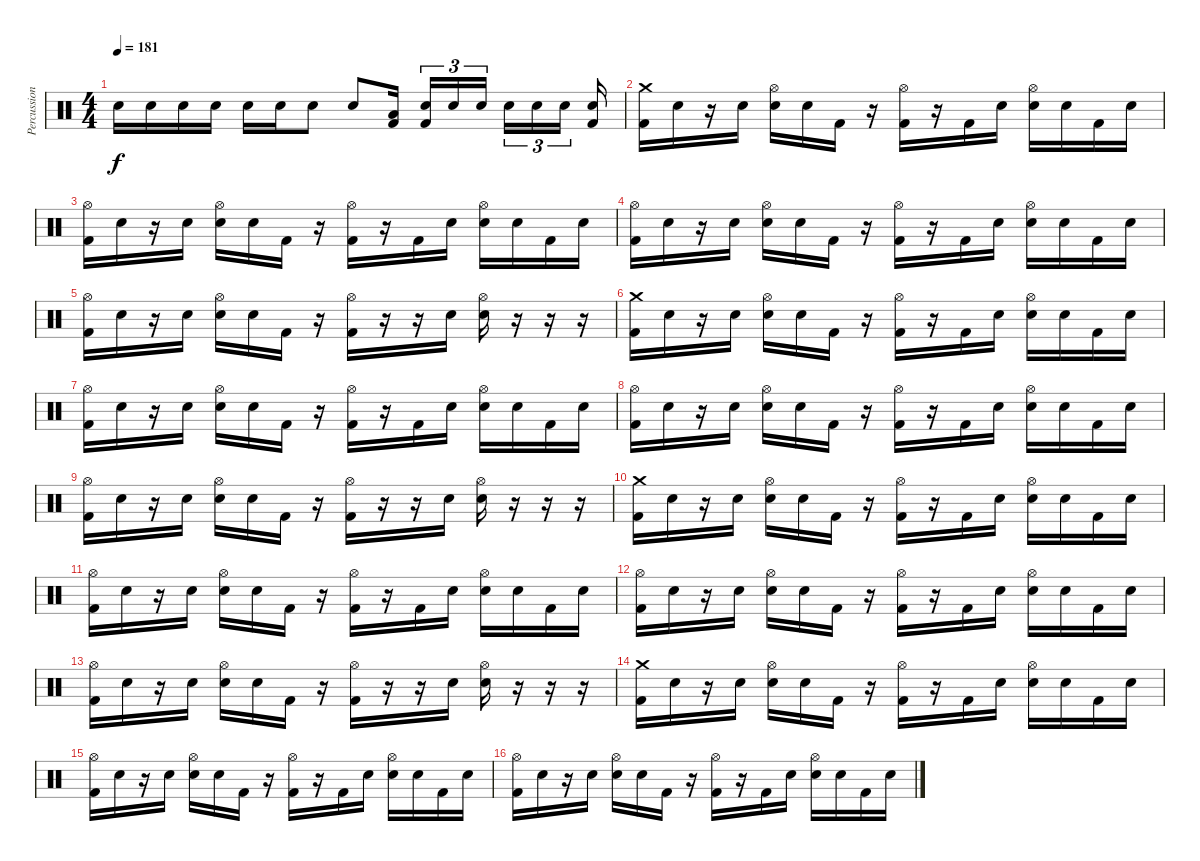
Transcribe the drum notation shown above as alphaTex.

\track ("Percussion" "Percussion") {instrument percussion}
\staff {score}
\articulation defaults
\ts (4 4)
\tempo 181
\clef neutral
\ks c "Snare (hit)"{x}.16{dy f} "Snare (hit)"{x}.16 "Snare (hit)"{x}.16 "Snare (hit)"{x}.16 "Snare (hit)"{x}.16 "Snare (hit)"{x}.16 "Snare (hit)"{x}.8 "Snare (hit)"{x}.8
("Kick (hit) 2" "Low Tom (hit)").16 ("Electric Snare (hit)" "Kick (hit) 2").16{tu (3 2)} "Electric Snare (hit)".16{tu (3 2)} "Electric Snare (hit)".16{tu (3 2)} "Electric Snare (hit)".16{tu (3 2)} "Electric Snare (hit)".16{tu (3 2)} "Electric Snare (hit)".16{tu (3 2)} ("Electric Snare (hit)" "Kick (hit) 2").16 |
("Kick (hit) 2" "Crash medium (hit)").16 "Snare (hit)"{x}.16 r.16 "Snare (hit)"{x}.16 ("Electric Snare (hit)" "Hi-Hat (open)").16 "Snare (hit)"{x}.16 "Kick (hit) 2".16 r.16 ("Kick (hit) 2" "Hi-Hat (open)").16 r.16 "Kick (hit) 2".16 "Snare (hit)"{x}.16 ("Electric Snare (hit)" "Hi-Hat (open)").16 "Snare (hit)"{x}.16 "Kick (hit) 2".16 "Snare (hit)"{x}.16 |
("Kick (hit) 2" "Hi-Hat (open)").16 "Snare (hit)"{x}.16 r.16 "Snare (hit)"{x}.16 ("Electric Snare (hit)" "Hi-Hat (open)").16 "Snare (hit)"{x}.16 "Kick (hit) 2".16 r.16 ("Kick (hit) 2" "Hi-Hat (open)").16 r.16 "Kick (hit) 2".16 "Snare (hit)"{x}.16 ("Electric Snare (hit)" "Hi-Hat (open)").16 "Snare (hit)"{x}.16 "Kick (hit) 2".16 "Snare (hit)"{x}.16 |
("Kick (hit) 2" "Hi-Hat (open)").16 "Snare (hit)"{x}.16 r.16 "Snare (hit)"{x}.16 ("Electric Snare (hit)" "Hi-Hat (open)").16 "Snare (hit)"{x}.16 "Kick (hit) 2".16 r.16 ("Kick (hit) 2" "Hi-Hat (open)").16 r.16 "Kick (hit) 2".16 "Snare (hit)"{x}.16 ("Electric Snare (hit)" "Hi-Hat (open)").16 "Snare (hit)"{x}.16 "Kick (hit) 2".16 "Snare (hit)"{x}.16 |
("Kick (hit) 2" "Hi-Hat (open)").16 "Snare (hit)"{x}.16 r.16 "Snare (hit)"{x}.16 ("Electric Snare (hit)" "Hi-Hat (open)").16 "Snare (hit)"{x}.16 "Kick (hit) 2".16 r.16 ("Kick (hit) 2" "Hi-Hat (open)").16 r.16 r.16 "Snare (hit)"{x}.16 ("Electric Snare (hit)" "Hi-Hat (open)").16 r.16 r.16 r.16 |
("Kick (hit) 2" "Crash medium (hit)").16 "Snare (hit)"{x}.16 r.16 "Snare (hit)"{x}.16 ("Electric Snare (hit)" "Hi-Hat (open)").16 "Snare (hit)"{x}.16 "Kick (hit) 2".16 r.16 ("Kick (hit) 2" "Hi-Hat (open)").16 r.16 "Kick (hit) 2".16 "Snare (hit)"{x}.16 ("Electric Snare (hit)" "Hi-Hat (open)").16 "Snare (hit)"{x}.16 "Kick (hit) 2".16 "Snare (hit)"{x}.16 |
("Kick (hit) 2" "Hi-Hat (open)").16 "Snare (hit)"{x}.16 r.16 "Snare (hit)"{x}.16 ("Electric Snare (hit)" "Hi-Hat (open)").16 "Snare (hit)"{x}.16 "Kick (hit) 2".16 r.16 ("Kick (hit) 2" "Hi-Hat (open)").16 r.16 "Kick (hit) 2".16 "Snare (hit)"{x}.16 ("Electric Snare (hit)" "Hi-Hat (open)").16 "Snare (hit)"{x}.16 "Kick (hit) 2".16 "Snare (hit)"{x}.16 |
("Kick (hit) 2" "Hi-Hat (open)").16 "Snare (hit)"{x}.16 r.16 "Snare (hit)"{x}.16 ("Electric Snare (hit)" "Hi-Hat (open)").16 "Snare (hit)"{x}.16 "Kick (hit) 2".16 r.16 ("Kick (hit) 2" "Hi-Hat (open)").16 r.16 "Kick (hit) 2".16 "Snare (hit)"{x}.16 ("Electric Snare (hit)" "Hi-Hat (open)").16 "Snare (hit)"{x}.16 "Kick (hit) 2".16 "Snare (hit)"{x}.16 |
("Kick (hit) 2" "Hi-Hat (open)").16 "Snare (hit)"{x}.16 r.16 "Snare (hit)"{x}.16 ("Electric Snare (hit)" "Hi-Hat (open)").16 "Snare (hit)"{x}.16 "Kick (hit) 2".16 r.16 ("Kick (hit) 2" "Hi-Hat (open)").16 r.16 r.16 "Snare (hit)"{x}.16 ("Electric Snare (hit)" "Hi-Hat (open)").16 r.16 r.16 r.16 |
("Kick (hit) 2" "Crash medium (hit)").16 "Snare (hit)"{x}.16 r.16 "Snare (hit)"{x}.16 ("Electric Snare (hit)" "Hi-Hat (open)").16 "Snare (hit)"{x}.16 "Kick (hit) 2".16 r.16 ("Kick (hit) 2" "Hi-Hat (open)").16 r.16 "Kick (hit) 2".16 "Snare (hit)"{x}.16 ("Electric Snare (hit)" "Hi-Hat (open)").16 "Snare (hit)"{x}.16 "Kick (hit) 2".16 "Snare (hit)"{x}.16 |
("Kick (hit) 2" "Hi-Hat (open)").16 "Snare (hit)"{x}.16 r.16 "Snare (hit)"{x}.16 ("Electric Snare (hit)" "Hi-Hat (open)").16 "Snare (hit)"{x}.16 "Kick (hit) 2".16 r.16 ("Kick (hit) 2" "Hi-Hat (open)").16 r.16 "Kick (hit) 2".16 "Snare (hit)"{x}.16 ("Electric Snare (hit)" "Hi-Hat (open)").16 "Snare (hit)"{x}.16 "Kick (hit) 2".16 "Snare (hit)"{x}.16 |
("Kick (hit) 2" "Hi-Hat (open)").16 "Snare (hit)"{x}.16 r.16 "Snare (hit)"{x}.16 ("Electric Snare (hit)" "Hi-Hat (open)").16 "Snare (hit)"{x}.16 "Kick (hit) 2".16 r.16 ("Kick (hit) 2" "Hi-Hat (open)").16 r.16 "Kick (hit) 2".16 "Snare (hit)"{x}.16 ("Electric Snare (hit)" "Hi-Hat (open)").16 "Snare (hit)"{x}.16 "Kick (hit) 2".16 "Snare (hit)"{x}.16 |
("Kick (hit) 2" "Hi-Hat (open)").16 "Snare (hit)"{x}.16 r.16 "Snare (hit)"{x}.16 ("Electric Snare (hit)" "Hi-Hat (open)").16 "Snare (hit)"{x}.16 "Kick (hit) 2".16 r.16 ("Kick (hit) 2" "Hi-Hat (open)").16 r.16 r.16 "Snare (hit)"{x}.16 ("Electric Snare (hit)" "Hi-Hat (open)").16 r.16 r.16 r.16 |
("Kick (hit) 2" "Crash medium (hit)").16 "Snare (hit)"{x}.16 r.16 "Snare (hit)"{x}.16 ("Electric Snare (hit)" "Hi-Hat (open)").16 "Snare (hit)"{x}.16 "Kick (hit) 2".16 r.16 ("Kick (hit) 2" "Hi-Hat (open)").16 r.16 "Kick (hit) 2".16 "Snare (hit)"{x}.16 ("Electric Snare (hit)" "Hi-Hat (open)").16 "Snare (hit)"{x}.16 "Kick (hit) 2".16 "Snare (hit)"{x}.16 |
("Kick (hit) 2" "Hi-Hat (open)").16 "Snare (hit)"{x}.16 r.16 "Snare (hit)"{x}.16 ("Electric Snare (hit)" "Hi-Hat (open)").16 "Snare (hit)"{x}.16 "Kick (hit) 2".16 r.16 ("Kick (hit) 2" "Hi-Hat (open)").16 r.16 "Kick (hit) 2".16 "Snare (hit)"{x}.16 ("Electric Snare (hit)" "Hi-Hat (open)").16 "Snare (hit)"{x}.16 "Kick (hit) 2".16 "Snare (hit)"{x}.16 |
("Kick (hit) 2" "Hi-Hat (open)").16 "Snare (hit)"{x}.16 r.16 "Snare (hit)"{x}.16 ("Electric Snare (hit)" "Hi-Hat (open)").16 "Snare (hit)"{x}.16 "Kick (hit) 2".16 r.16 ("Kick (hit) 2" "Hi-Hat (open)").16 r.16 "Kick (hit) 2".16 "Snare (hit)"{x}.16 ("Electric Snare (hit)" "Hi-Hat (open)").16 "Snare (hit)"{x}.16 "Kick (hit) 2".16 "Snare (hit)"{x}.16
